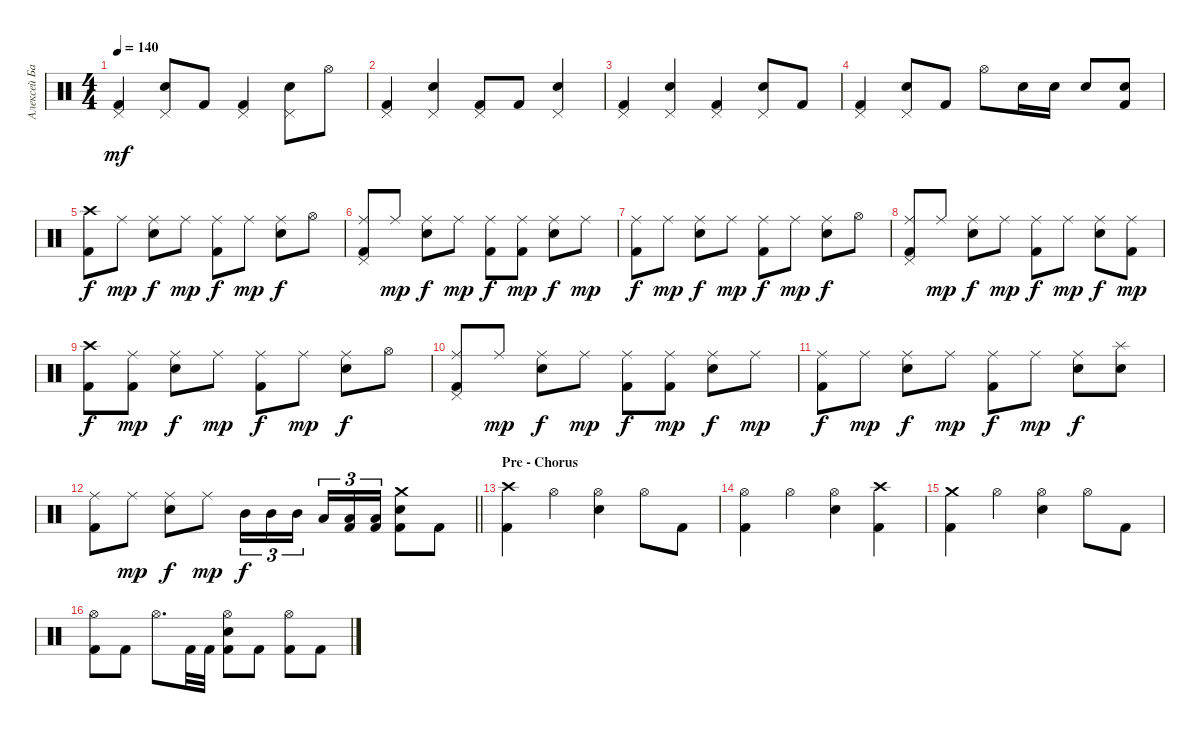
\track ("Алексей Барзилович" "Алексей Ба") {instrument percussion}
\staff {score}
\articulation defaults
\ts (4 4)
\tempo 140
\clef neutral
\ks c
("Pedal Hi-Hat (hit)" "Kick (hit) 2").4{dy mf} ("Pedal Hi-Hat (hit)" "Electric Snare (hit)").8 "Kick (hit) 2".8 ("Pedal Hi-Hat (hit)" "Kick (hit) 2").4 ("Pedal Hi-Hat (hit)" "Electric Snare (hit)").8 "Hi-Hat (open)".8 |
("Pedal Hi-Hat (hit)" "Kick (hit) 2").4 ("Pedal Hi-Hat (hit)" "Electric Snare (hit)").4 ("Pedal Hi-Hat (hit)" "Kick (hit) 2").8 "Kick (hit) 2".8 ("Pedal Hi-Hat (hit)" "Electric Snare (hit)").4 |
("Pedal Hi-Hat (hit)" "Kick (hit) 2").4 ("Pedal Hi-Hat (hit)" "Electric Snare (hit)").4 ("Pedal Hi-Hat (hit)" "Kick (hit) 2").4 ("Pedal Hi-Hat (hit)" "Electric Snare (hit)").8 "Kick (hit) 2".8 |
("Pedal Hi-Hat (hit)" "Kick (hit) 2").4 ("Pedal Hi-Hat (hit)" "Electric Snare (hit)").8 "Kick (hit) 2".8 "Hi-Hat (open)".8 "Electric Snare (hit)".16 "Electric Snare (hit)".16 "Electric Snare (hit)".8 ("Electric Snare (hit)" "Kick (hit) 2").8 |
("Crash high (hit)" "Kick (hit) 2").8{dy f} "Ride (middle)".8{dy mp} ("Ride (middle)" "Electric Snare (hit)").8{dy f} "Ride (middle)".8{dy mp} ("Ride (middle)" "Kick (hit) 2").8{dy f} "Ride (middle)".8{dy mp} ("Ride (middle)" "Electric Snare (hit)").8{dy f} "Hi-Hat (open)".8 |
("Ride (middle)" "Pedal Hi-Hat (hit)" "Kick (hit) 2").8 "Ride (middle)".8{dy mp} ("Ride (middle)" "Electric Snare (hit)").8{dy f} "Ride (middle)".8{dy mp} ("Ride (middle)" "Kick (hit) 2").8{dy f} ("Ride (middle)" "Kick (hit) 2").8{dy mp} ("Ride (middle)" "Electric Snare (hit)").8{dy f} "Ride (middle)".8{dy mp} |
("Ride (middle)" "Kick (hit) 2").8{dy f} "Ride (middle)".8{dy mp} ("Ride (middle)" "Electric Snare (hit)").8{dy f} "Ride (middle)".8{dy mp} ("Ride (middle)" "Kick (hit) 2").8{dy f} "Ride (middle)".8{dy mp} ("Ride (middle)" "Electric Snare (hit)").8{dy f} "Hi-Hat (open)".8 |
("Ride (middle)" "Pedal Hi-Hat (hit)" "Kick (hit) 2").8 "Ride (middle)".8{dy mp} ("Ride (middle)" "Electric Snare (hit)").8{dy f} "Ride (middle)".8{dy mp} ("Ride (middle)" "Kick (hit) 2").8{dy f} "Ride (middle)".8{dy mp} ("Ride (middle)" "Electric Snare (hit)").8{dy f} ("Ride (middle)" "Kick (hit) 2").8{dy mp} |
("Crash high (hit)" "Kick (hit) 2").8{dy f} ("Ride (middle)" "Kick (hit) 2").8{dy mp} ("Ride (middle)" "Electric Snare (hit)").8{dy f} "Ride (middle)".8{dy mp} ("Ride (middle)" "Kick (hit) 2").8{dy f} "Ride (middle)".8{dy mp} ("Ride (middle)" "Electric Snare (hit)").8{dy f} "Hi-Hat (open)".8 |
("Ride (middle)" "Pedal Hi-Hat (hit)" "Kick (hit) 2").8 "Ride (middle)".8{dy mp} ("Ride (middle)" "Electric Snare (hit)").8{dy f} "Ride (middle)".8{dy mp} ("Ride (middle)" "Kick (hit) 2").8{dy f} ("Ride (middle)" "Kick (hit) 2").8{dy mp} ("Ride (middle)" "Electric Snare (hit)").8{dy f} "Ride (middle)".8{dy mp} |
("Ride (middle)" "Kick (hit) 2").8{dy f} "Ride (middle)".8{dy mp} ("Ride (middle)" "Electric Snare (hit)").8{dy f} "Ride (middle)".8{dy mp} ("Ride (middle)" "Kick (hit) 2").8{dy f} "Ride (middle)".8{dy mp} ("Ride (middle)" "Electric Snare (hit)").8{dy f} ("Splash (hit)" "Electric Snare (hit)").8 |
\barLineRight lightlight
("Ride (middle)" "Kick (hit) 2").8 "Ride (middle)".8{dy mp} ("Ride (middle)" "Electric Snare (hit)").8{dy f} "Ride (middle)".8{dy mp} "Mid Tom (hit)".16{tu (3 2) dy f} "Mid Tom (hit)".16{tu (3 2)} "Mid Tom (hit)".16{tu (3 2) beam splitsecondary} "Low Tom (hit)".16{tu (3 2)} ("Low Tom (hit)" "Kick (hit) 2").16{tu (3 2)} ("Low Tom (hit)" "Kick (hit) 2").16{tu (3 2)} ("Crash medium (hit)" "Electric Snare (hit)" "Kick (hit) 2").8 "Kick (hit) 2".8 |
\section ("" "Pre - Chorus")
("Crash high (hit)" "Kick (hit) 2").4 "Hi-Hat (open)".4 ("Hi-Hat (open)" "Electric Snare (hit)").4 "Hi-Hat (open)".8 "Kick (hit) 2".8 |
("Hi-Hat (open)" "Kick (hit) 2").4 "Hi-Hat (open)".4 ("Hi-Hat (open)" "Electric Snare (hit)").4 ("Crash high (hit)" "Kick (hit) 2").4 |
("Crash medium (hit)" "Kick (hit) 2").4 "Hi-Hat (open)".4 ("Hi-Hat (open)" "Electric Snare (hit)").4 "Hi-Hat (open)".8 "Kick (hit) 2".8 |
("Hi-Hat (open)" "Kick (hit) 2").8 "Kick (hit) 2".8 "Hi-Hat (open)".8{d} "Kick (hit) 2".32 "Kick (hit) 2".32 ("Hi-Hat (open)" "Electric Snare (hit)" "Kick (hit) 2").8 "Kick (hit) 2".8 ("Hi-Hat (open)" "Kick (hit) 2").8 "Kick (hit) 2".8
